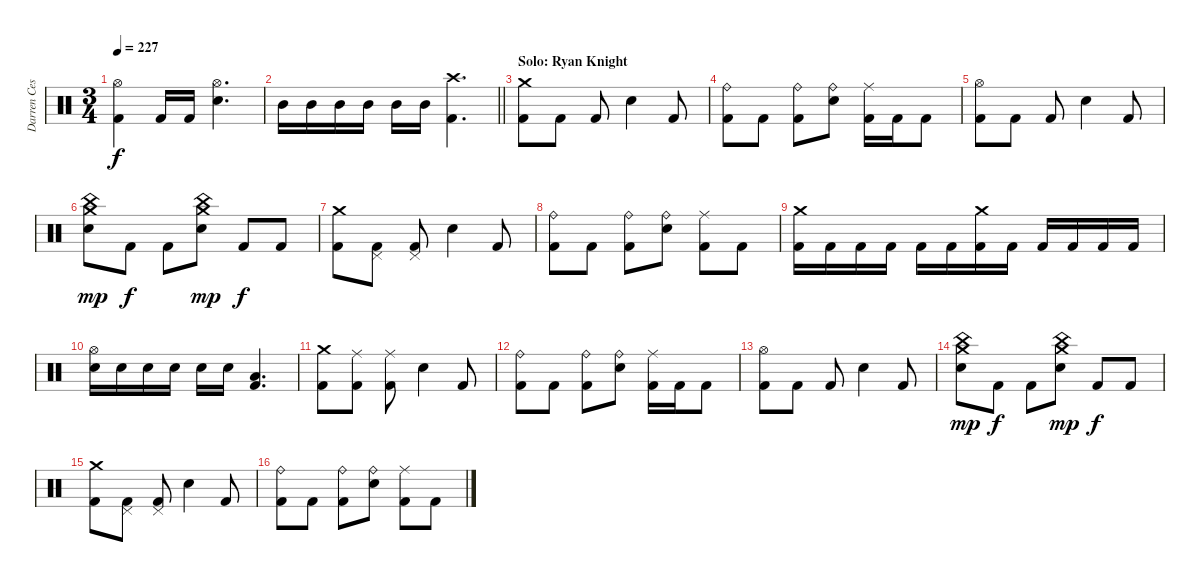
\track ("Darren Cesca" "Darren Ces") {instrument percussion}
\staff {score}
\articulation defaults
\ts (3 4)
\tempo 227
\clef neutral
\ks c
("Hi-Hat (open)" "Kick (hit) 2").4{dy f} "Kick (hit) 2".16 "Kick (hit) 2".16 ("Hi-Hat (open)" "Electric Snare (hit)").4{d} |
\barLineRight lightlight "Mid Tom (hit)".16 "Mid Tom (hit)".16 "Mid Tom (hit)".16 "Mid Tom (hit)".16 "Mid Tom (hit)".16 "Mid Tom (hit)".16
("Crash high (hit)" "Kick (hit) 2").4{d} |
\section ("" "Solo: Ryan Knight")
("Crash medium (hit)" "Kick (hit) 2").8 "Kick (hit) 2".8 "Kick (hit) 2".8 "Electric Snare (hit)".4 "Kick (hit) 2".8 |
("Ride (bell)" "Kick (hit) 2").8 "Kick (hit) 2".8 ("Ride (bell)" "Kick (hit) 2").8 ("Ride (bell)" "Electric Snare (hit)").8 ("Ride (middle)" "Kick (hit) 2").16 "Kick (hit) 2".16 "Kick (hit) 2".8 |
("Hi-Hat (open)" "Kick (hit) 2").8 "Kick (hit) 2".8 "Kick (hit) 2".8 "Electric Snare (hit)".4 "Kick (hit) 2".8 |
("China (hit)" "Crash medium (hit)" "Electric Snare (hit)").8{dy mp} "Kick (hit) 2".8{dy f} "Kick (hit) 2".8 ("China (hit)" "Crash medium (hit)" "Electric Snare (hit)").8{dy mp} "Kick (hit) 2".8{dy f} "Kick (hit) 2".8 |
("Crash medium (hit)" "Kick (hit) 2").8 ("Pedal Hi-Hat (hit)" "Kick (hit) 2").8 ("Pedal Hi-Hat (hit)" "Kick (hit) 2").8 "Electric Snare (hit)".4 "Kick (hit) 2".8 |
("Ride (bell)" "Kick (hit) 2").8 "Kick (hit) 2".8 ("Ride (bell)" "Kick (hit) 2").8 ("Ride (bell)" "Electric Snare (hit)").8 ("Ride (middle)" "Kick (hit) 2").8 "Kick (hit) 2".8 |
("Crash medium (hit)" "Kick (hit) 2").16 "Kick (hit) 2".16 "Kick (hit) 2".16 "Kick (hit) 2".16 "Kick (hit) 2".16 "Kick (hit) 2".16 ("Crash medium (hit)" "Kick (hit) 2").16 "Kick (hit) 2".16 "Kick (hit) 2".16 "Kick (hit) 2".16 "Kick (hit) 2".16 "Kick (hit) 2".16 |
("Hi-Hat (open)" "Electric Snare (hit)").16 "Electric Snare (hit)".16 "Electric Snare (hit)".16 "Electric Snare (hit)".16 "Electric Snare (hit)".16 "Electric Snare (hit)".16 ("Low Tom (hit)" "Kick (hit) 2").4{d} |
("Crash medium (hit)" "Kick (hit) 2").8 ("Ride (middle)" "Kick (hit) 2").8 ("Ride (middle)" "Kick (hit) 2").8 "Electric Snare (hit)".4 "Kick (hit) 2".8 |
("Ride (bell)" "Kick (hit) 2").8 "Kick (hit) 2".8 ("Ride (bell)" "Kick (hit) 2").8 ("Ride (bell)" "Electric Snare (hit)").8 ("Ride (middle)" "Kick (hit) 2").16 "Kick (hit) 2".16 "Kick (hit) 2".8 |
("Hi-Hat (open)" "Kick (hit) 2").8 "Kick (hit) 2".8 "Kick (hit) 2".8 "Electric Snare (hit)".4 "Kick (hit) 2".8 |
("China (hit)" "Crash medium (hit)" "Electric Snare (hit)").8{dy mp} "Kick (hit) 2".8{dy f} "Kick (hit) 2".8 ("China (hit)" "Crash medium (hit)" "Electric Snare (hit)").8{dy mp} "Kick (hit) 2".8{dy f} "Kick (hit) 2".8 |
("Crash medium (hit)" "Kick (hit) 2").8 ("Pedal Hi-Hat (hit)" "Kick (hit) 2").8 ("Pedal Hi-Hat (hit)" "Kick (hit) 2").8 "Electric Snare (hit)".4 "Kick (hit) 2".8 |
("Ride (bell)" "Kick (hit) 2").8 "Kick (hit) 2".8 ("Ride (bell)" "Kick (hit) 2").8 ("Ride (bell)" "Electric Snare (hit)").8 ("Ride (middle)" "Kick (hit) 2").8 "Kick (hit) 2".8
